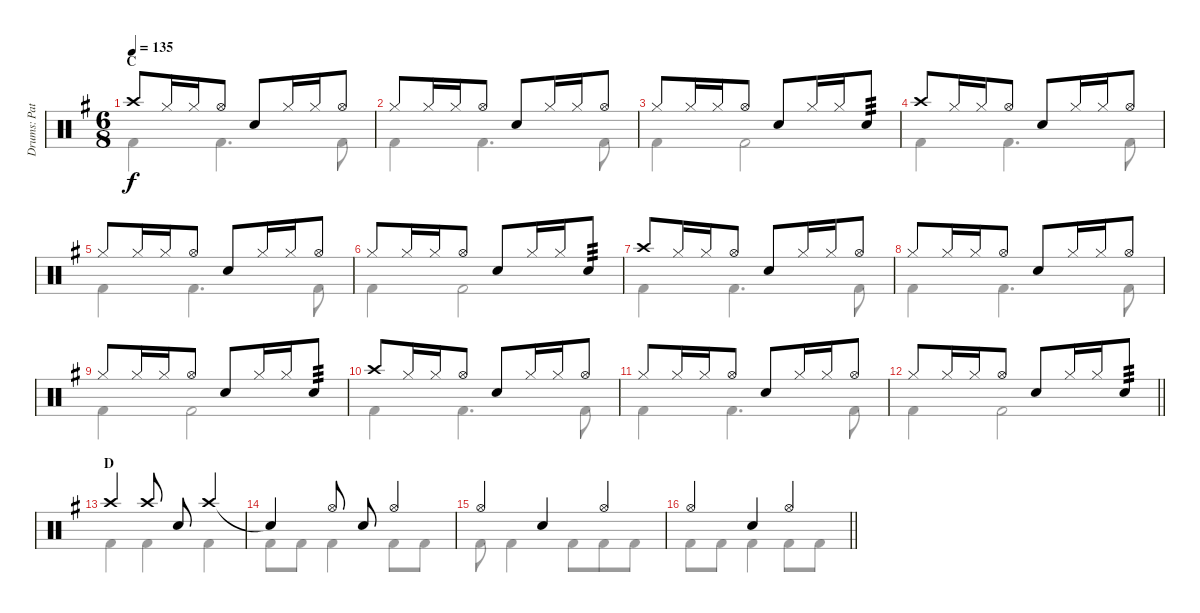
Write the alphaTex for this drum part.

\track ("Drums: Pat" "Drums: Pat") {instrument percussion}
\staff {score}
\articulation defaults
\voice
\ts (6 8)
\section ("" "C")
\tempo 135
\clef neutral
\ks g "Crash high (hit)".8{dy f} "Hi-Hat (closed)".16 "Hi-Hat (closed)".16 "Hi-Hat (open)".8 "Snare (hit) 2".8 "Hi-Hat (closed)".16 "Hi-Hat (closed)".16 "Hi-Hat (open)".8
|
"Hi-Hat (closed)".8 "Hi-Hat (closed)".16 "Hi-Hat (closed)".16 "Hi-Hat (open)".8 "Snare (hit) 2".8 "Hi-Hat (closed)".16 "Hi-Hat (closed)".16 "Hi-Hat (open)".8 |
"Hi-Hat (closed)".8 "Hi-Hat (closed)".16 "Hi-Hat (closed)".16 "Hi-Hat (open)".8 "Snare (hit) 2".8 "Hi-Hat (closed)".16 "Hi-Hat (closed)".16 "Electric Snare (hit)".8{tp 3} |
"Crash high (hit)".8 "Hi-Hat (closed)".16 "Hi-Hat (closed)".16 "Hi-Hat (open)".8 "Snare (hit) 2".8 "Hi-Hat (closed)".16 "Hi-Hat (closed)".16 "Hi-Hat (open)".8 |
"Hi-Hat (closed)".8 "Hi-Hat (closed)".16 "Hi-Hat (closed)".16 "Hi-Hat (open)".8 "Snare (hit) 2".8 "Hi-Hat (closed)".16 "Hi-Hat (closed)".16 "Hi-Hat (open)".8 |
"Hi-Hat (closed)".8 "Hi-Hat (closed)".16 "Hi-Hat (closed)".16 "Hi-Hat (open)".8 "Snare (hit) 2".8 "Hi-Hat (closed)".16 "Hi-Hat (closed)".16 "Electric Snare (hit)".8{tp 3} |
"Crash high (hit)".8 "Hi-Hat (closed)".16 "Hi-Hat (closed)".16 "Hi-Hat (open)".8 "Snare (hit) 2".8 "Hi-Hat (closed)".16 "Hi-Hat (closed)".16 "Hi-Hat (open)".8 |
"Hi-Hat (closed)".8 "Hi-Hat (closed)".16 "Hi-Hat (closed)".16 "Hi-Hat (open)".8 "Snare (hit) 2".8 "Hi-Hat (closed)".16 "Hi-Hat (closed)".16 "Hi-Hat (open)".8 |
"Hi-Hat (closed)".8 "Hi-Hat (closed)".16 "Hi-Hat (closed)".16 "Hi-Hat (open)".8 "Snare (hit) 2".8 "Hi-Hat (closed)".16 "Hi-Hat (closed)".16 "Electric Snare (hit)".8{tp 3} |
"Crash high (hit)".8 "Hi-Hat (closed)".16 "Hi-Hat (closed)".16 "Hi-Hat (open)".8 "Snare (hit) 2".8 "Hi-Hat (closed)".16 "Hi-Hat (closed)".16 "Hi-Hat (open)".8 |
"Hi-Hat (closed)".8 "Hi-Hat (closed)".16 "Hi-Hat (closed)".16 "Hi-Hat (open)".8 "Snare (hit) 2".8 "Hi-Hat (closed)".16 "Hi-Hat (closed)".16 "Hi-Hat (open)".8 |
\barLineRight lightlight "Hi-Hat (closed)".8 "Hi-Hat (closed)".16 "Hi-Hat (closed)".16 "Hi-Hat (open)".8 "Snare (hit) 2".8 "Hi-Hat (closed)".16 "Hi-Hat (closed)".16 "Electric Snare (hit)".8{tp 3}
|
\section ("" "D")
"Crash high (hit)".4 "Crash high (hit)".8 "Electric Snare (hit)".8 "Crash high (hit)".4 |
"Snare (hit)"{t}.4 "Hi-Hat (open)".8 "Snare (hit) 2".8 "Hi-Hat (open)".4 |
"Hi-Hat (open)".4 "Snare (hit) 2".4 "Hi-Hat (open)".4 |
\barLineRight lightlight "Hi-Hat (open)".4 "Snare (hit) 2".4 "Hi-Hat (open)".4
\voice
\clef neutral
\ottava regular
\simile none
\ks g "Kick (hit) 2".4{dy f} "Kick (hit) 2".4{d} "Kick (hit) 2".8
|
"Kick (hit) 2".4 "Kick (hit) 2".4{d} "Kick (hit) 2".8 |
"Kick (hit) 2".4 "Kick (hit) 2".2 |
"Kick (hit) 2".4 "Kick (hit) 2".4{d} "Kick (hit) 2".8 |
"Kick (hit) 2".4 "Kick (hit) 2".4{d} "Kick (hit) 2".8 |
"Kick (hit) 2".4 "Kick (hit) 2".2 |
"Kick (hit) 2".4 "Kick (hit) 2".4{d} "Kick (hit) 2".8 |
"Kick (hit) 2".4 "Kick (hit) 2".4{d} "Kick (hit) 2".8 |
"Kick (hit) 2".4 "Kick (hit) 2".2 |
"Kick (hit) 2".4 "Kick (hit) 2".4{d} "Kick (hit) 2".8 |
"Kick (hit) 2".4 "Kick (hit) 2".4{d} "Kick (hit) 2".8 |
\barLineRight lightlight "Kick (hit) 2".4 "Kick (hit) 2".2
|
"Kick (hit) 2".4 "Kick (hit) 2".4 "Kick (hit) 2".4 |
"Kick (hit) 2".8 "Kick (hit) 2".8 "Kick (hit) 2".4 "Kick (hit) 2".8 "Kick (hit) 2".8 |
"Kick (hit) 2".8 "Kick (hit) 2".4 "Kick (hit) 2".8 "Kick (hit) 2".8 "Kick (hit) 2".8 |
\barLineRight lightlight "Kick (hit) 2".8 "Kick (hit) 2".8 "Kick (hit) 2".4 "Kick (hit) 2".8 "Kick (hit) 2".8
